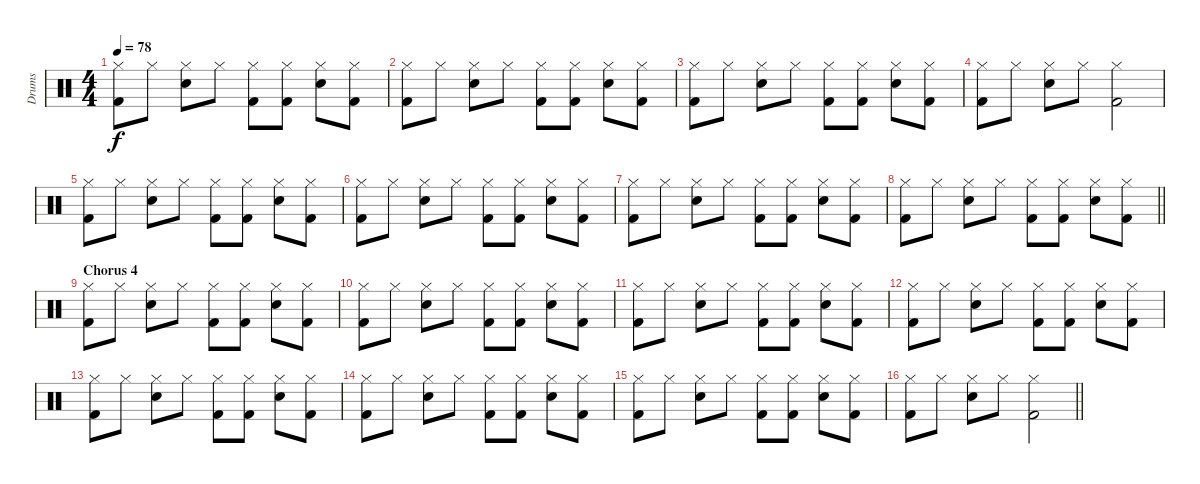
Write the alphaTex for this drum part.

\track ("Drums" "Drums") {instrument percussion}
\staff {score}
\articulation defaults
\ts (4 4)
\tempo 78
\clef neutral
\ks c
("Hi-Hat (closed)" "Kick (hit) 2").8{dy f} "Hi-Hat (closed)".8 ("Hi-Hat (closed)" "Snare (hit) 2").8 "Hi-Hat (closed)".8 ("Hi-Hat (closed)" "Kick (hit) 2").8 ("Hi-Hat (closed)" "Kick (hit) 2").8 ("Hi-Hat (closed)" "Snare (hit) 2").8 ("Hi-Hat (closed)" "Kick (hit) 2").8 |
("Hi-Hat (closed)" "Kick (hit) 2").8 "Hi-Hat (closed)".8 ("Hi-Hat (closed)" "Snare (hit) 2").8 "Hi-Hat (closed)".8 ("Hi-Hat (closed)" "Kick (hit) 2").8 ("Hi-Hat (closed)" "Kick (hit) 2").8 ("Hi-Hat (closed)" "Snare (hit) 2").8 ("Hi-Hat (closed)" "Kick (hit) 2").8 |
("Hi-Hat (closed)" "Kick (hit) 2").8 "Hi-Hat (closed)".8 ("Hi-Hat (closed)" "Snare (hit) 2").8 "Hi-Hat (closed)".8 ("Hi-Hat (closed)" "Kick (hit) 2").8 ("Hi-Hat (closed)" "Kick (hit) 2").8 ("Hi-Hat (closed)" "Snare (hit) 2").8 ("Hi-Hat (closed)" "Kick (hit) 2").8 |
("Hi-Hat (closed)" "Kick (hit) 2").8 "Hi-Hat (closed)".8 ("Hi-Hat (closed)" "Snare (hit) 2").8 "Hi-Hat (closed)".8 ("Hi-Hat (closed)" "Kick (hit) 2").2 |
("Hi-Hat (closed)" "Kick (hit) 2").8 "Hi-Hat (closed)".8 ("Hi-Hat (closed)" "Snare (hit) 2").8 "Hi-Hat (closed)".8 ("Hi-Hat (closed)" "Kick (hit) 2").8 ("Hi-Hat (closed)" "Kick (hit) 2").8 ("Hi-Hat (closed)" "Snare (hit) 2").8 ("Hi-Hat (closed)" "Kick (hit) 2").8 |
("Hi-Hat (closed)" "Kick (hit) 2").8 "Hi-Hat (closed)".8 ("Hi-Hat (closed)" "Snare (hit) 2").8 "Hi-Hat (closed)".8 ("Hi-Hat (closed)" "Kick (hit) 2").8 ("Hi-Hat (closed)" "Kick (hit) 2").8 ("Hi-Hat (closed)" "Snare (hit) 2").8 ("Hi-Hat (closed)" "Kick (hit) 2").8 |
("Hi-Hat (closed)" "Kick (hit) 2").8 "Hi-Hat (closed)".8 ("Hi-Hat (closed)" "Snare (hit) 2").8 "Hi-Hat (closed)".8 ("Hi-Hat (closed)" "Kick (hit) 2").8 ("Hi-Hat (closed)" "Kick (hit) 2").8 ("Hi-Hat (closed)" "Snare (hit) 2").8 ("Hi-Hat (closed)" "Kick (hit) 2").8 |
\barLineRight lightlight
("Hi-Hat (closed)" "Kick (hit) 2").8 "Hi-Hat (closed)".8 ("Hi-Hat (closed)" "Snare (hit) 2").8 "Hi-Hat (closed)".8 ("Hi-Hat (closed)" "Kick (hit) 2").8 ("Hi-Hat (closed)" "Kick (hit) 2").8 ("Hi-Hat (closed)" "Snare (hit) 2").8 ("Hi-Hat (closed)" "Kick (hit) 2").8 |
\section ("" "Chorus 4")
("Hi-Hat (closed)" "Kick (hit) 2").8 "Hi-Hat (closed)".8 ("Hi-Hat (closed)" "Snare (hit) 2").8 "Hi-Hat (closed)".8 ("Hi-Hat (closed)" "Kick (hit) 2").8 ("Hi-Hat (closed)" "Kick (hit) 2").8 ("Hi-Hat (closed)" "Snare (hit) 2").8 ("Hi-Hat (closed)" "Kick (hit) 2").8 |
("Hi-Hat (closed)" "Kick (hit) 2").8 "Hi-Hat (closed)".8 ("Hi-Hat (closed)" "Snare (hit) 2").8 "Hi-Hat (closed)".8 ("Hi-Hat (closed)" "Kick (hit) 2").8 ("Hi-Hat (closed)" "Kick (hit) 2").8 ("Hi-Hat (closed)" "Snare (hit) 2").8 ("Hi-Hat (closed)" "Kick (hit) 2").8 |
("Hi-Hat (closed)" "Kick (hit) 2").8 "Hi-Hat (closed)".8 ("Hi-Hat (closed)" "Snare (hit) 2").8 "Hi-Hat (closed)".8 ("Hi-Hat (closed)" "Kick (hit) 2").8 ("Hi-Hat (closed)" "Kick (hit) 2").8 ("Hi-Hat (closed)" "Snare (hit) 2").8 ("Hi-Hat (closed)" "Kick (hit) 2").8 |
("Hi-Hat (closed)" "Kick (hit) 2").8 "Hi-Hat (closed)".8 ("Hi-Hat (closed)" "Snare (hit) 2").8 "Hi-Hat (closed)".8 ("Hi-Hat (closed)" "Kick (hit) 2").8 ("Hi-Hat (closed)" "Kick (hit) 2").8 ("Hi-Hat (closed)" "Snare (hit) 2").8 ("Hi-Hat (closed)" "Kick (hit) 2").8 |
("Hi-Hat (closed)" "Kick (hit) 2").8 "Hi-Hat (closed)".8 ("Hi-Hat (closed)" "Snare (hit) 2").8 "Hi-Hat (closed)".8 ("Hi-Hat (closed)" "Kick (hit) 2").8 ("Hi-Hat (closed)" "Kick (hit) 2").8 ("Hi-Hat (closed)" "Snare (hit) 2").8 ("Hi-Hat (closed)" "Kick (hit) 2").8 |
("Hi-Hat (closed)" "Kick (hit) 2").8 "Hi-Hat (closed)".8 ("Hi-Hat (closed)" "Snare (hit) 2").8 "Hi-Hat (closed)".8 ("Hi-Hat (closed)" "Kick (hit) 2").8 ("Hi-Hat (closed)" "Kick (hit) 2").8 ("Hi-Hat (closed)" "Snare (hit) 2").8 ("Hi-Hat (closed)" "Kick (hit) 2").8 |
("Hi-Hat (closed)" "Kick (hit) 2").8 "Hi-Hat (closed)".8 ("Hi-Hat (closed)" "Snare (hit) 2").8 "Hi-Hat (closed)".8 ("Hi-Hat (closed)" "Kick (hit) 2").8 ("Hi-Hat (closed)" "Kick (hit) 2").8 ("Hi-Hat (closed)" "Snare (hit) 2").8 ("Hi-Hat (closed)" "Kick (hit) 2").8 |
\barLineRight lightlight
("Hi-Hat (closed)" "Kick (hit) 2").8 "Hi-Hat (closed)".8 ("Hi-Hat (closed)" "Snare (hit) 2").8 "Hi-Hat (closed)".8 ("Hi-Hat (closed)" "Kick (hit) 2").2
